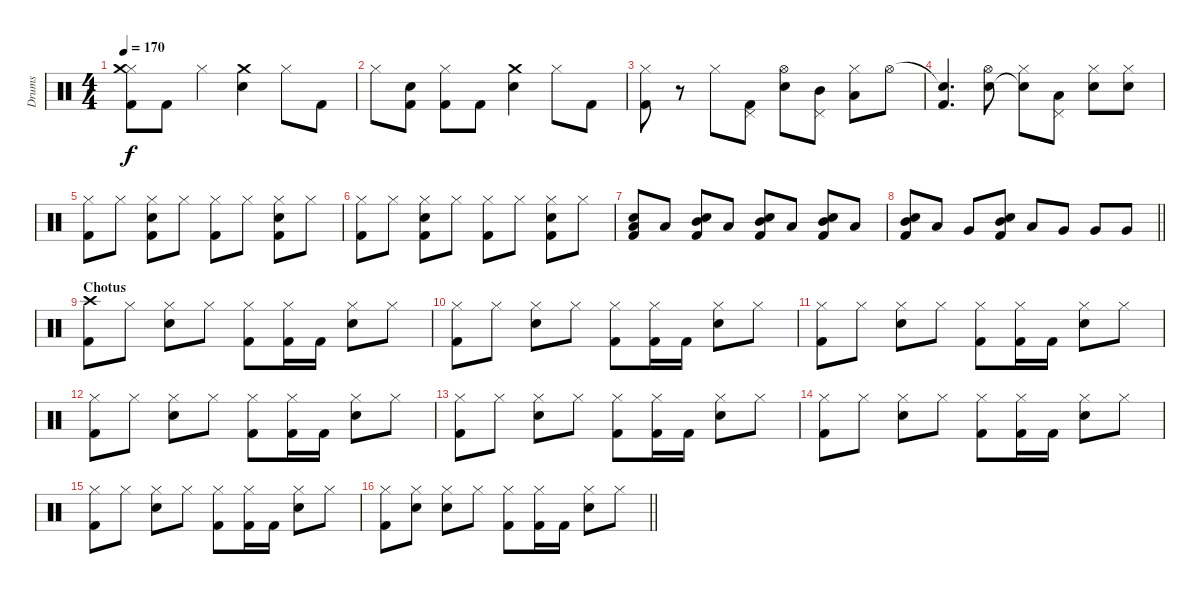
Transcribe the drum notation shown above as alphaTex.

\track ("Drums" "Drums") {instrument percussion}
\staff {score}
\articulation defaults
\ts (4 4)
\tempo 170
\clef neutral
\ks c
("Hi-Hat (closed)" "Crash medium (hit)" "Kick (hit) 2").8{dy f} "Kick (hit) 2".8 "Hi-Hat (closed)".4 ("Crash medium (hit)" "Snare (hit) 2").4 "Hi-Hat (closed)".8 "Kick (hit) 2".8 |
"Hi-Hat (closed)".8 ("Snare (hit) 2" "Kick (hit) 2").8 ("Hi-Hat (closed)" "Kick (hit) 2").8 "Kick (hit) 2".8 ("Crash medium (hit)" "Snare (hit) 2").4 "Hi-Hat (closed)".8 "Kick (hit) 2".8 |
("Hi-Hat (closed)" "Kick (hit) 2").8 r.8 "Hi-Hat (closed)".8 ("Pedal Hi-Hat (hit)" "Kick (hit) 2").8 ("Hi-Hat (open)" "Snare (hit) 2").8 ("Mid Tom (hit)" "Pedal Hi-Hat (hit)").8 ("Hi-Hat (closed)" "Low Tom (hit)").8 "Hi-Hat (open)".8 |
("Snare (hit)"{t} "Kick (hit) 2").4{d} ("Hi-Hat (open)" "Snare (hit) 2").8 ("Hi-Hat (closed)" "Snare (hit) 2"{t}).8 ("Low Tom (hit)" "Pedal Hi-Hat (hit)").8 ("Hi-Hat (closed)" "Snare (hit) 2").8 ("Hi-Hat (closed)" "Snare (hit) 2").8 |
("Hi-Hat (closed)" "Kick (hit) 2").8 "Hi-Hat (closed)".8 ("Hi-Hat (closed)" "Snare (hit) 2" "Kick (hit) 2").8 "Hi-Hat (closed)".8 ("Hi-Hat (closed)" "Kick (hit) 2").8 "Hi-Hat (closed)".8 ("Hi-Hat (closed)" "Snare (hit) 2" "Kick (hit) 2").8 "Hi-Hat (closed)".8 |
("Hi-Hat (closed)" "Kick (hit) 2").8 "Hi-Hat (closed)".8 ("Hi-Hat (closed)" "Snare (hit) 2" "Kick (hit) 2").8 "Hi-Hat (closed)".8 ("Hi-Hat (closed)" "Kick (hit) 2").8 "Hi-Hat (closed)".8 ("Hi-Hat (closed)" "Snare (hit) 2" "Kick (hit) 2").8 "Hi-Hat (closed)".8 |
("Snare (hit) 2" "Low Tom (hit)" "Kick (hit) 2").8 "Low Tom (hit)".8 ("Mid Tom (hit)" "Snare (hit) 2" "Kick (hit) 2").8 "Low Tom (hit)".8 ("Mid Tom (hit)" "Snare (hit) 2" "Kick (hit) 2").8 "Low Tom (hit)".8 ("Mid Tom (hit)" "Snare (hit) 2" "Kick (hit) 2").8 "Low Tom (hit)".8 |
\barLineRight lightlight
("Mid Tom (hit)" "Snare (hit) 2" "Kick (hit) 2").8 "Low Tom (hit)".8 "Very Low Tom (hit)".8 ("Mid Tom (hit)" "Snare (hit) 2" "Kick (hit) 2").8 "Low Tom (hit)".8 "Very Low Tom (hit)".8 "Very Low Tom (hit)".8 "Very Low Tom (hit)".8 |
\section ("" "Chotus")
("Crash high (hit)" "Kick (hit) 2").8 "Hi-Hat (closed)".8 ("Hi-Hat (closed)" "Snare (hit) 2").8 "Hi-Hat (closed)".8 ("Hi-Hat (closed)" "Kick (hit) 2").8 ("Hi-Hat (closed)" "Kick (hit) 2").16 "Kick (hit) 2".16 ("Hi-Hat (closed)" "Snare (hit) 2").8 "Hi-Hat (closed)".8 |
("Hi-Hat (closed)" "Kick (hit) 2").8 "Hi-Hat (closed)".8 ("Hi-Hat (closed)" "Snare (hit) 2").8 "Hi-Hat (closed)".8 ("Hi-Hat (closed)" "Kick (hit) 2").8 ("Hi-Hat (closed)" "Kick (hit) 2").16 "Kick (hit) 2".16 ("Hi-Hat (closed)" "Snare (hit) 2").8 "Hi-Hat (closed)".8 |
("Hi-Hat (closed)" "Kick (hit) 2").8 "Hi-Hat (closed)".8 ("Hi-Hat (closed)" "Snare (hit) 2").8 "Hi-Hat (closed)".8 ("Hi-Hat (closed)" "Kick (hit) 2").8 ("Hi-Hat (closed)" "Kick (hit) 2").16 "Kick (hit) 2".16 ("Hi-Hat (closed)" "Snare (hit) 2").8 "Hi-Hat (closed)".8 |
("Hi-Hat (closed)" "Kick (hit) 2").8 "Hi-Hat (closed)".8 ("Hi-Hat (closed)" "Snare (hit) 2").8 "Hi-Hat (closed)".8 ("Hi-Hat (closed)" "Kick (hit) 2").8 ("Hi-Hat (closed)" "Kick (hit) 2").16 "Kick (hit) 2".16 ("Hi-Hat (closed)" "Snare (hit) 2").8 "Hi-Hat (closed)".8 |
("Hi-Hat (closed)" "Kick (hit) 2").8 "Hi-Hat (closed)".8 ("Hi-Hat (closed)" "Snare (hit) 2").8 "Hi-Hat (closed)".8 ("Hi-Hat (closed)" "Kick (hit) 2").8 ("Hi-Hat (closed)" "Kick (hit) 2").16 "Kick (hit) 2".16 ("Hi-Hat (closed)" "Snare (hit) 2").8 "Hi-Hat (closed)".8 |
("Hi-Hat (closed)" "Kick (hit) 2").8 "Hi-Hat (closed)".8 ("Hi-Hat (closed)" "Snare (hit) 2").8 "Hi-Hat (closed)".8 ("Hi-Hat (closed)" "Kick (hit) 2").8 ("Hi-Hat (closed)" "Kick (hit) 2").16 "Kick (hit) 2".16 ("Hi-Hat (closed)" "Snare (hit) 2").8 "Hi-Hat (closed)".8 |
("Hi-Hat (closed)" "Kick (hit) 2").8 "Hi-Hat (closed)".8 ("Hi-Hat (closed)" "Snare (hit) 2").8 "Hi-Hat (closed)".8 ("Hi-Hat (closed)" "Kick (hit) 2").8 ("Hi-Hat (closed)" "Kick (hit) 2").16 "Kick (hit) 2".16 ("Hi-Hat (closed)" "Snare (hit) 2").8 "Hi-Hat (closed)".8 |
\barLineRight lightlight
("Hi-Hat (closed)" "Kick (hit) 2").8 ("Hi-Hat (closed)" "Snare (hit) 2").8 ("Hi-Hat (closed)" "Snare (hit) 2").8 "Hi-Hat (closed)".8 ("Hi-Hat (closed)" "Kick (hit) 2").8 ("Hi-Hat (closed)" "Kick (hit) 2").16 "Kick (hit) 2".16 ("Hi-Hat (closed)" "Snare (hit) 2").8 "Hi-Hat (closed)".8
